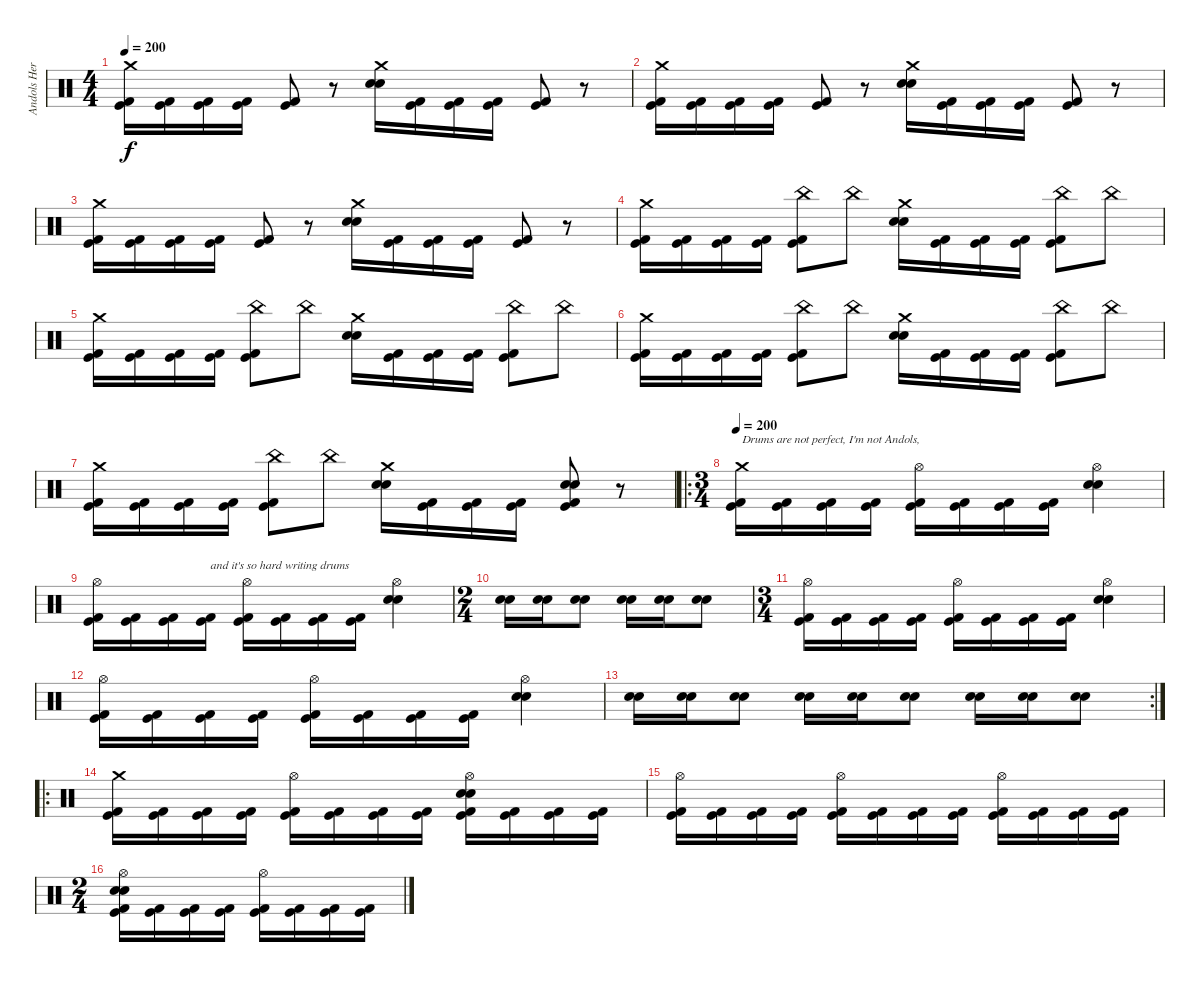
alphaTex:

\track ("Andols Herrick" "Andols Her") {instrument percussion}
\staff {score}
\articulation defaults
\ts (4 4)
\tempo 200
\clef neutral
\ks c
("Crash medium (hit)" "Kick (hit) 2" "Kick (hit)").16{dy f} ("Kick (hit) 2" "Kick (hit)").16 ("Kick (hit) 2" "Kick (hit)").16 ("Kick (hit) 2" "Kick (hit)").16 ("Kick (hit) 2" "Kick (hit)").8 r.8 ("Crash medium (hit)" "Electric Snare (hit)" "Snare (hit) 2").16 ("Kick (hit) 2" "Kick (hit)").16 ("Kick (hit) 2" "Kick (hit)").16 ("Kick (hit) 2" "Kick (hit)").16 ("Kick (hit) 2" "Kick (hit)").8 r.8 |
("Crash medium (hit)" "Kick (hit) 2" "Kick (hit)").16 ("Kick (hit) 2" "Kick (hit)").16 ("Kick (hit) 2" "Kick (hit)").16 ("Kick (hit) 2" "Kick (hit)").16 ("Kick (hit) 2" "Kick (hit)").8 r.8 ("Crash medium (hit)" "Electric Snare (hit)" "Snare (hit) 2").16 ("Kick (hit) 2" "Kick (hit)").16 ("Kick (hit) 2" "Kick (hit)").16 ("Kick (hit) 2" "Kick (hit)").16 ("Kick (hit) 2" "Kick (hit)").8 r.8 |
("Crash medium (hit)" "Kick (hit) 2" "Kick (hit)").16 ("Kick (hit) 2" "Kick (hit)").16 ("Kick (hit) 2" "Kick (hit)").16 ("Kick (hit) 2" "Kick (hit)").16 ("Kick (hit) 2" "Kick (hit)").8 r.8 ("Crash medium (hit)" "Electric Snare (hit)" "Snare (hit) 2").16 ("Kick (hit) 2" "Kick (hit)").16 ("Kick (hit) 2" "Kick (hit)").16 ("Kick (hit) 2" "Kick (hit)").16 ("Kick (hit) 2" "Kick (hit)").8 r.8 |
("Crash medium (hit)" "Kick (hit) 2" "Kick (hit)").16 ("Kick (hit) 2" "Kick (hit)").16 ("Kick (hit) 2" "Kick (hit)").16 ("Kick (hit) 2" "Kick (hit)").16 ("China (hit)" "Kick (hit) 2" "Kick (hit)").8 "China (hit)".8 ("Crash medium (hit)" "Electric Snare (hit)" "Snare (hit) 2").16 ("Kick (hit) 2" "Kick (hit)").16 ("Kick (hit) 2" "Kick (hit)").16 ("Kick (hit) 2" "Kick (hit)").16 ("China (hit)" "Kick (hit) 2" "Kick (hit)").8 "China (hit)".8 |
("Crash medium (hit)" "Kick (hit) 2" "Kick (hit)").16 ("Kick (hit) 2" "Kick (hit)").16 ("Kick (hit) 2" "Kick (hit)").16 ("Kick (hit) 2" "Kick (hit)").16 ("China (hit)" "Kick (hit) 2" "Kick (hit)").8 "China (hit)".8 ("Crash medium (hit)" "Electric Snare (hit)" "Snare (hit) 2").16 ("Kick (hit) 2" "Kick (hit)").16 ("Kick (hit) 2" "Kick (hit)").16 ("Kick (hit) 2" "Kick (hit)").16 ("China (hit)" "Kick (hit) 2" "Kick (hit)").8 "China (hit)".8 |
("Crash medium (hit)" "Kick (hit) 2" "Kick (hit)").16 ("Kick (hit) 2" "Kick (hit)").16 ("Kick (hit) 2" "Kick (hit)").16 ("Kick (hit) 2" "Kick (hit)").16 ("China (hit)" "Kick (hit) 2" "Kick (hit)").8 "China (hit)".8 ("Crash medium (hit)" "Electric Snare (hit)" "Snare (hit) 2").16 ("Kick (hit) 2" "Kick (hit)").16 ("Kick (hit) 2" "Kick (hit)").16 ("Kick (hit) 2" "Kick (hit)").16 ("China (hit)" "Kick (hit) 2" "Kick (hit)").8 "China (hit)".8 |
("Crash medium (hit)" "Kick (hit) 2" "Kick (hit)").16 ("Kick (hit) 2" "Kick (hit)").16 ("Kick (hit) 2" "Kick (hit)").16 ("Kick (hit) 2" "Kick (hit)").16 ("China (hit)" "Kick (hit) 2" "Kick (hit)").8 "China (hit)".8 ("Crash medium (hit)" "Electric Snare (hit)" "Snare (hit) 2").16 ("Kick (hit) 2" "Kick (hit)").16 ("Kick (hit) 2" "Kick (hit)").16 ("Kick (hit) 2" "Kick (hit)").16 ("Snare (hit) 2" "Electric Snare (hit)" "Kick (hit) 2" "Kick (hit)").8 r.8 |
\ro
\ts (3 4)
\tempo 200
("Crash medium (hit)" "Kick (hit) 2" "Kick (hit)").16{txt "Drums are not perfect, I'm not Andols, "} ("Kick (hit) 2" "Kick (hit)").16 ("Kick (hit) 2" "Kick (hit)").16 ("Kick (hit) 2" "Kick (hit)").16 ("Hi-Hat (open)" "Kick (hit) 2" "Kick (hit)").16 ("Kick (hit) 2" "Kick (hit)").16 ("Kick (hit) 2" "Kick (hit)").16 ("Kick (hit) 2" "Kick (hit)").16 ("Hi-Hat (open)" "Electric Snare (hit)" "Snare (hit) 2").4 |
("Hi-Hat (open)" "Kick (hit) 2" "Kick (hit)").16 ("Kick (hit) 2" "Kick (hit)").16 ("Kick (hit) 2" "Kick (hit)").16 ("Kick (hit) 2" "Kick (hit)").16{txt "and it's so hard writing drums"} ("Hi-Hat (open)" "Kick (hit) 2" "Kick (hit)").16 ("Kick (hit) 2" "Kick (hit)").16 ("Kick (hit) 2" "Kick (hit)").16 ("Kick (hit) 2" "Kick (hit)").16 ("Hi-Hat (open)" "Electric Snare (hit)" "Snare (hit) 2").4 |
\ts (2 4)
("Electric Snare (hit)" "Snare (hit) 2").16 ("Electric Snare (hit)" "Snare (hit) 2").16 ("Electric Snare (hit)" "Snare (hit) 2").8 ("Electric Snare (hit)" "Snare (hit) 2").16 ("Electric Snare (hit)" "Snare (hit) 2").16 ("Electric Snare (hit)" "Snare (hit) 2").8 |
\ts (3 4)
("Hi-Hat (open)" "Kick (hit) 2" "Kick (hit)").16 ("Kick (hit) 2" "Kick (hit)").16 ("Kick (hit) 2" "Kick (hit)").16 ("Kick (hit) 2" "Kick (hit)").16 ("Hi-Hat (open)" "Kick (hit) 2" "Kick (hit)").16 ("Kick (hit) 2" "Kick (hit)").16 ("Kick (hit) 2" "Kick (hit)").16 ("Kick (hit) 2" "Kick (hit)").16 ("Hi-Hat (open)" "Electric Snare (hit)" "Snare (hit) 2").4 |
("Hi-Hat (open)" "Kick (hit) 2" "Kick (hit)").16 ("Kick (hit) 2" "Kick (hit)").16 ("Kick (hit) 2" "Kick (hit)").16 ("Kick (hit) 2" "Kick (hit)").16 ("Hi-Hat (open)" "Kick (hit) 2" "Kick (hit)").16 ("Kick (hit) 2" "Kick (hit)").16 ("Kick (hit) 2" "Kick (hit)").16 ("Kick (hit) 2" "Kick (hit)").16 ("Hi-Hat (open)" "Electric Snare (hit)" "Snare (hit) 2").4 |
\rc 2
("Electric Snare (hit)" "Snare (hit) 2").16 ("Electric Snare (hit)" "Snare (hit) 2").16 ("Electric Snare (hit)" "Snare (hit) 2").8 ("Electric Snare (hit)" "Snare (hit) 2").16 ("Electric Snare (hit)" "Snare (hit) 2").16 ("Electric Snare (hit)" "Snare (hit) 2").8 ("Electric Snare (hit)" "Snare (hit) 2").16 ("Electric Snare (hit)" "Snare (hit) 2").16 ("Electric Snare (hit)" "Snare (hit) 2").8 |
\ro
("Crash medium (hit)" "Kick (hit) 2" "Kick (hit)").16 ("Kick (hit) 2" "Kick (hit)").16 ("Kick (hit) 2" "Kick (hit)").16 ("Kick (hit) 2" "Kick (hit)").16 ("Hi-Hat (open)" "Kick (hit) 2" "Kick (hit)").16 ("Kick (hit) 2" "Kick (hit)").16 ("Kick (hit) 2" "Kick (hit)").16 ("Kick (hit) 2" "Kick (hit)").16 ("Hi-Hat (open)" "Electric Snare (hit)" "Snare (hit) 2" "Kick (hit) 2" "Kick (hit)").16 ("Kick (hit) 2" "Kick (hit)").16 ("Kick (hit) 2" "Kick (hit)").16 ("Kick (hit) 2" "Kick (hit)").16 |
("Hi-Hat (open)" "Kick (hit) 2" "Kick (hit)").16 ("Kick (hit) 2" "Kick (hit)").16 ("Kick (hit) 2" "Kick (hit)").16 ("Kick (hit) 2" "Kick (hit)").16 ("Hi-Hat (open)" "Kick (hit) 2" "Kick (hit)").16 ("Kick (hit) 2" "Kick (hit)").16 ("Kick (hit) 2" "Kick (hit)").16 ("Kick (hit) 2" "Kick (hit)").16 ("Hi-Hat (open)" "Kick (hit) 2" "Kick (hit)").16 ("Kick (hit) 2" "Kick (hit)").16 ("Kick (hit) 2" "Kick (hit)").16 ("Kick (hit) 2" "Kick (hit)").16 |
\ts (2 4)
("Hi-Hat (open)" "Electric Snare (hit)" "Snare (hit) 2" "Kick (hit) 2" "Kick (hit)").16 ("Kick (hit) 2" "Kick (hit)").16 ("Kick (hit) 2" "Kick (hit)").16 ("Kick (hit) 2" "Kick (hit)").16 ("Hi-Hat (open)" "Kick (hit) 2" "Kick (hit)").16 ("Kick (hit) 2" "Kick (hit)").16 ("Kick (hit) 2" "Kick (hit)").16 ("Kick (hit) 2" "Kick (hit)").16
